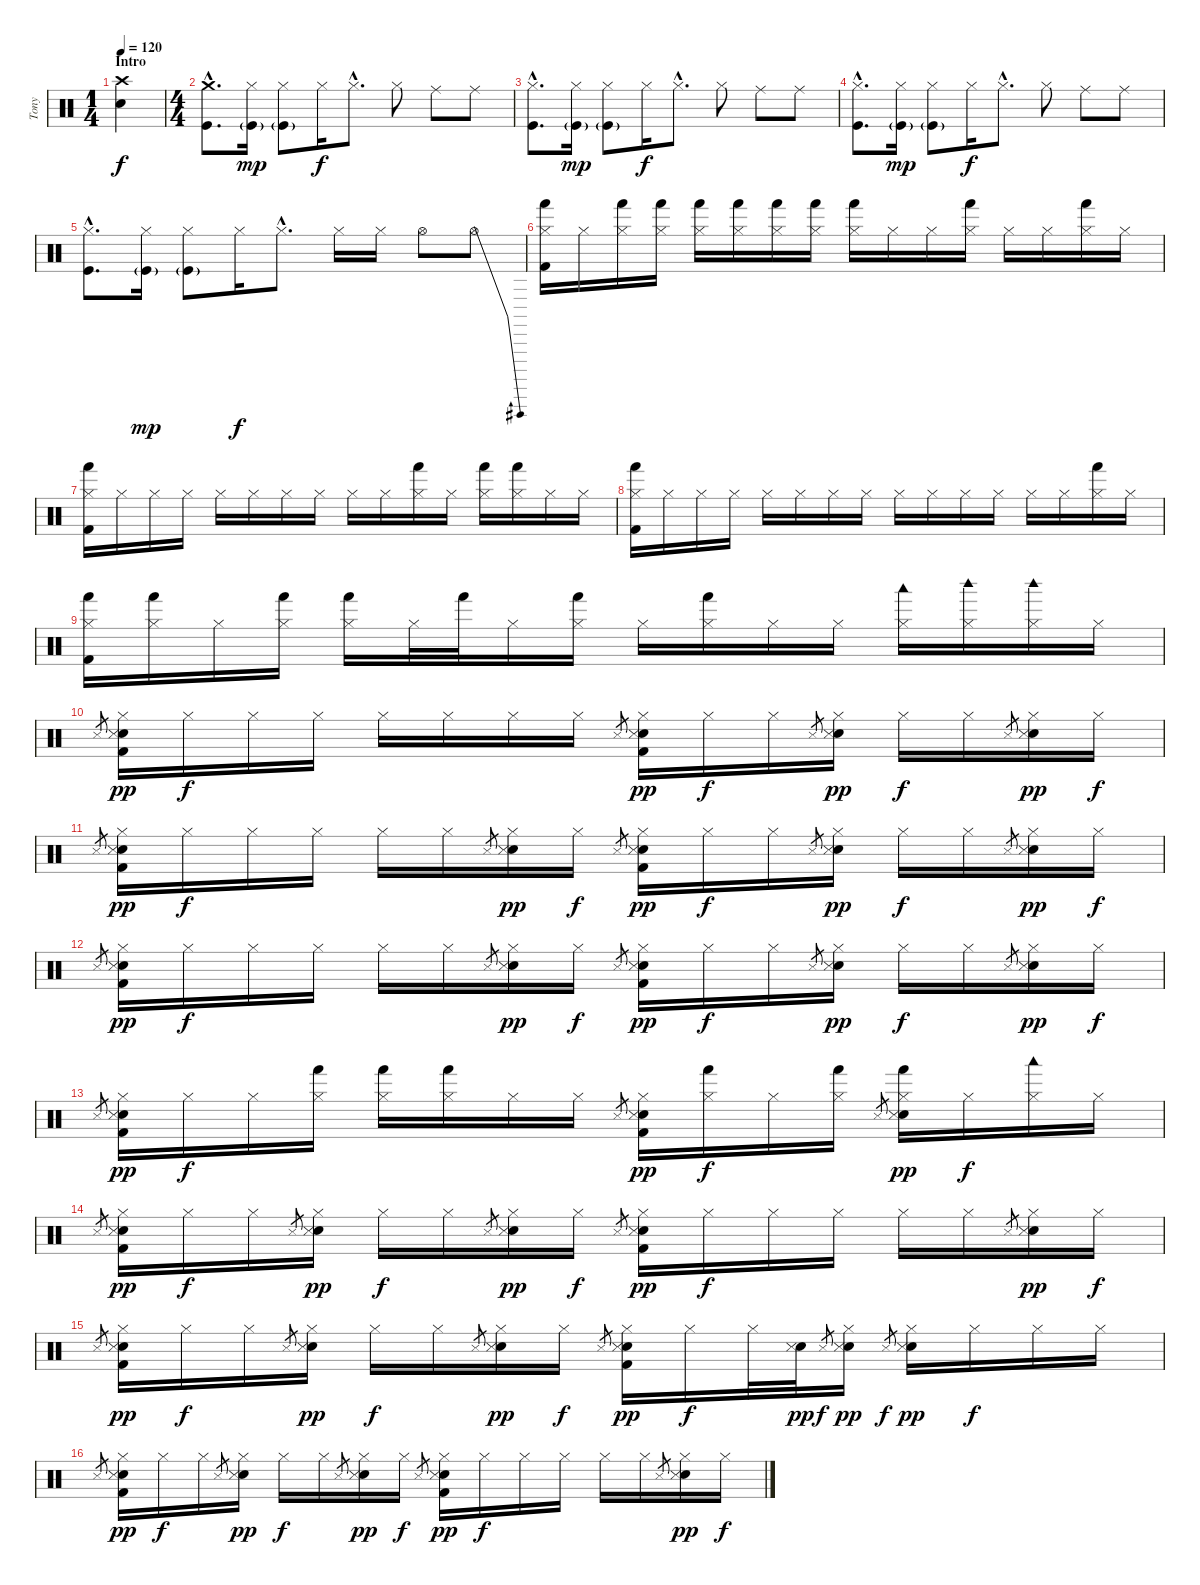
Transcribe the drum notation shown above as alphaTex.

\track ("Tony" "Tony") {instrument percussion}
\staff {score}
\articulation defaults
\ts (1 4)
\section ("" "Intro")
\tempo 120
\clef neutral
\ks c
("Crash high (hit)" "Snare (hit) 2").4{dy f} |
\ts (4 4)
("Crash medium (hit)"{hac} "Kick (hit)"{hac}).8{d} ("Hi-Hat (closed)" "Kick (hit)"{g}).16{dy mp} ("Hi-Hat (closed)" "Kick (hit)"{g}).8 "Hi-Hat (closed)".16{dy f} "Hi-Hat (closed)"{hac}.8{d} "Hi-Hat (closed)".8 "Ride (middle)".8 "Ride (middle)".8 |
("Hi-Hat (closed)"{hac} "Kick (hit)"{hac}).8{d} ("Hi-Hat (closed)" "Kick (hit)"{g}).16{dy mp} ("Hi-Hat (closed)" "Kick (hit)"{g}).8 "Hi-Hat (closed)".16{dy f} "Hi-Hat (closed)"{hac}.8{d} "Hi-Hat (closed)".8 "Ride (middle)".8 "Ride (middle)".8 |
("Hi-Hat (closed)"{hac} "Kick (hit)"{hac}).8{d} ("Hi-Hat (closed)" "Kick (hit)"{g}).16{dy mp} ("Hi-Hat (closed)" "Kick (hit)"{g}).8 "Hi-Hat (closed)".16{dy f} "Hi-Hat (closed)"{hac}.8{d} "Hi-Hat (closed)".8 "Ride (middle)".8 "Ride (middle)".8 |
("Hi-Hat (closed)"{hac} "Kick (hit)"{hac}).8{d} ("Hi-Hat (closed)" "Kick (hit)"{g}).16{dy mp} ("Hi-Hat (closed)" "Kick (hit)"{g}).8 "Hi-Hat (closed)".16{dy f} "Hi-Hat (closed)"{hac}.8{d} "Hi-Hat (closed)".16 "Hi-Hat (closed)".16 "Hi-Hat (open)"{be (custom 0 0 10 9 20 9 30 0 40 0 50 9 60 9)}.8 "Hi-Hat (open)"{be (bend 0 0 60 9)}.8 |
("Hand (hit)" "Hi-Hat (closed)" "Kick (hit) 2").16 "Hi-Hat (closed)".16 ("Hand (hit)" "Hi-Hat (closed)").16 ("Hand (hit)" "Hi-Hat (closed)").16 ("Hand (hit)" "Hi-Hat (closed)").16 ("Hand (hit)" "Hi-Hat (closed)").16 ("Hand (hit)" "Hi-Hat (closed)").16 ("Hand (hit)" "Hi-Hat (closed)").16 ("Hand (hit)" "Hi-Hat (closed)").16 "Hi-Hat (closed)".16 "Hi-Hat (closed)".16 ("Hand (hit)" "Hi-Hat (closed)").16 "Hi-Hat (closed)".16 "Hi-Hat (closed)".16 ("Hand (hit)" "Hi-Hat (closed)").16 "Hi-Hat (closed)".16 |
("Hand (hit)" "Hi-Hat (closed)" "Kick (hit) 2").16 "Hi-Hat (closed)".16 "Hi-Hat (closed)".16 "Hi-Hat (closed)".16 "Hi-Hat (closed)".16 "Hi-Hat (closed)".16 "Hi-Hat (closed)".16 "Hi-Hat (closed)".16 "Hi-Hat (closed)".16 "Hi-Hat (closed)".16 ("Hand (hit)" "Hi-Hat (closed)").16 "Hi-Hat (closed)".16 ("Hand (hit)" "Hi-Hat (closed)").16 ("Hand (hit)" "Hi-Hat (closed)").16 "Hi-Hat (closed)".16 "Hi-Hat (closed)".16 |
("Hand (hit)" "Hi-Hat (closed)" "Kick (hit) 2").16 "Hi-Hat (closed)".16 "Hi-Hat (closed)".16 "Hi-Hat (closed)".16 "Hi-Hat (closed)".16 "Hi-Hat (closed)".16 "Hi-Hat (closed)".16 "Hi-Hat (closed)".16 "Hi-Hat (closed)".16 "Hi-Hat (closed)".16 "Hi-Hat (closed)".16 "Hi-Hat (closed)".16 "Hi-Hat (closed)".16 "Hi-Hat (closed)".16 ("Hand (hit)" "Hi-Hat (closed)").16 "Hi-Hat (closed)".16 |
("Hand (hit)" "Hi-Hat (closed)" "Kick (hit) 2").16 ("Hand (hit)" "Hi-Hat (closed)").16 "Hi-Hat (closed)".16 ("Hand (hit)" "Hi-Hat (closed)").16 ("Hand (hit)" "Hi-Hat (closed)").16 "Hi-Hat (closed)".32 "Hand (hit)".32 "Hi-Hat (closed)".16 ("Hand (hit)" "Hi-Hat (closed)").16 "Hi-Hat (closed)".16 ("Hand (hit)" "Hi-Hat (closed)").16 "Hi-Hat (closed)".16 "Hi-Hat (closed)".16 ("Woodblock low (hit)" "Hi-Hat (closed)").16 ("Woodblock high (hit)" "Hi-Hat (closed)").16 ("Woodblock high (hit)" "Hi-Hat (closed)").16 "Hi-Hat (closed)".16 |
"Snare (side stick) 3".8{gr} ("Hand Clap (hit)" "Snare (side stick) 3" "Hi-Hat (closed)" "Kick (hit) 2").16{dy pp} "Hi-Hat (closed)".16{dy f} "Hi-Hat (closed)".16 "Hi-Hat (closed)".16 "Hi-Hat (closed)".16 "Hi-Hat (closed)".16 "Hi-Hat (closed)".16 "Hi-Hat (closed)".16 "Snare (side stick) 3".8{gr} ("Hand Clap (hit)" "Snare (side stick) 3" "Hi-Hat (closed)" "Kick (hit) 2").16{dy pp} "Hi-Hat (closed)".16{dy f} "Hi-Hat (closed)".16 "Snare (side stick) 3".8{gr} ("Hand Clap (hit)" "Snare (side stick) 3" "Hi-Hat (closed)").16{dy pp} "Hi-Hat (closed)".16{dy f} "Hi-Hat (closed)".16 "Snare (side stick) 3".8{gr} ("Hand Clap (hit)" "Snare (side stick) 3" "Hi-Hat (closed)").16{dy pp} "Hi-Hat (closed)".16{dy f} |
"Snare (side stick) 3".8{gr} ("Hand Clap (hit)" "Snare (side stick) 3" "Hi-Hat (closed)" "Kick (hit) 2").16{dy pp} "Hi-Hat (closed)".16{dy f} "Hi-Hat (closed)".16 "Hi-Hat (closed)".16 "Hi-Hat (closed)".16 "Hi-Hat (closed)".16 "Snare (side stick) 3".8{gr} ("Hand Clap (hit)" "Snare (side stick) 3" "Hi-Hat (closed)").16{dy pp} "Hi-Hat (closed)".16{dy f} "Snare (side stick) 3".8{gr} ("Hand Clap (hit)" "Snare (side stick) 3" "Hi-Hat (closed)" "Kick (hit) 2").16{dy pp} "Hi-Hat (closed)".16{dy f} "Hi-Hat (closed)".16 "Snare (side stick) 3".8{gr} ("Hand Clap (hit)" "Snare (side stick) 3" "Hi-Hat (closed)").16{dy pp} "Hi-Hat (closed)".16{dy f} "Hi-Hat (closed)".16 "Snare (side stick) 3".8{gr} ("Hand Clap (hit)" "Snare (side stick) 3" "Hi-Hat (closed)").16{dy pp} "Hi-Hat (closed)".16{dy f} |
"Snare (side stick) 3".8{gr} ("Hand Clap (hit)" "Snare (side stick) 3" "Hi-Hat (closed)" "Kick (hit) 2").16{dy pp} "Hi-Hat (closed)".16{dy f} "Hi-Hat (closed)".16 "Hi-Hat (closed)".16 "Hi-Hat (closed)".16 "Hi-Hat (closed)".16 "Snare (side stick) 3".8{gr} ("Hand Clap (hit)" "Snare (side stick) 3" "Hi-Hat (closed)").16{dy pp} "Hi-Hat (closed)".16{dy f} "Snare (side stick) 3".8{gr} ("Hand Clap (hit)" "Snare (side stick) 3" "Hi-Hat (closed)" "Kick (hit) 2").16{dy pp} "Hi-Hat (closed)".16{dy f} "Hi-Hat (closed)".16 "Snare (side stick) 3".8{gr} ("Hand Clap (hit)" "Snare (side stick) 3" "Hi-Hat (closed)").16{dy pp} "Hi-Hat (closed)".16{dy f} "Hi-Hat (closed)".16 "Snare (side stick) 3".8{gr} ("Hand Clap (hit)" "Snare (side stick) 3" "Hi-Hat (closed)").16{dy pp} "Hi-Hat (closed)".16{dy f} |
"Snare (side stick) 3".8{gr} ("Hand Clap (hit)" "Snare (side stick) 3" "Hi-Hat (closed)" "Kick (hit) 2").16{dy pp} "Hi-Hat (closed)".16{dy f} "Hi-Hat (closed)".16 ("Hand (hit)" "Hi-Hat (closed)").16 ("Hand (hit)" "Hi-Hat (closed)").16 ("Hand (hit)" "Hi-Hat (closed)").16 "Hi-Hat (closed)".16 "Hi-Hat (closed)".16 "Snare (side stick) 3".8{gr} ("Hand Clap (hit)" "Snare (side stick) 3" "Hi-Hat (closed)" "Kick (hit) 2").16{dy pp} ("Hand (hit)" "Hi-Hat (closed)").16{dy f} "Hi-Hat (closed)".16 ("Hand (hit)" "Hi-Hat (closed)").16 "Snare (side stick) 3".8{gr} ("Hand Clap (hit)" "Snare (side stick) 3" "Hand (hit)" "Hi-Hat (closed)").16{dy pp} "Hi-Hat (closed)".16{dy f} ("Woodblock low (hit)" "Hi-Hat (closed)").16 "Hi-Hat (closed)".16 |
"Snare (side stick) 3".8{gr} ("Hand Clap (hit)" "Snare (side stick) 3" "Hi-Hat (closed)" "Kick (hit) 2").16{dy pp} "Hi-Hat (closed)".16{dy f} "Hi-Hat (closed)".16 "Snare (side stick) 3".8{gr} ("Hand Clap (hit)" "Snare (side stick) 3" "Hi-Hat (closed)").16{dy pp} "Hi-Hat (closed)".16{dy f} "Hi-Hat (closed)".16 "Snare (side stick) 3".8{gr} ("Hand Clap (hit)" "Snare (side stick) 3" "Hi-Hat (closed)").16{dy pp} "Hi-Hat (closed)".16{dy f} "Snare (side stick) 3".8{gr} ("Hand Clap (hit)" "Snare (side stick) 3" "Hi-Hat (closed)" "Kick (hit) 2").16{dy pp} "Hi-Hat (closed)".16{dy f} "Hi-Hat (closed)".16 "Hi-Hat (closed)".16 "Hi-Hat (closed)".16 "Hi-Hat (closed)".16 "Snare (side stick) 3".8{gr} ("Hand Clap (hit)" "Snare (side stick) 3" "Hi-Hat (closed)").16{dy pp} "Hi-Hat (closed)".16{dy f} |
"Snare (side stick) 3".8{gr} ("Hand Clap (hit)" "Snare (side stick) 3" "Hi-Hat (closed)" "Kick (hit) 2").16{dy pp} "Hi-Hat (closed)".16{dy f} "Hi-Hat (closed)".16 "Snare (side stick) 3".8{gr} ("Hand Clap (hit)" "Snare (side stick) 3" "Hi-Hat (closed)").16{dy pp} "Hi-Hat (closed)".16{dy f} "Hi-Hat (closed)".16 "Snare (side stick) 3".8{gr} ("Hand Clap (hit)" "Snare (side stick) 3" "Hi-Hat (closed)").16{dy pp} "Hi-Hat (closed)".16{dy f} "Snare (side stick) 3".8{gr} ("Hand Clap (hit)" "Snare (side stick) 3" "Hi-Hat (closed)" "Kick (hit) 2").16{dy pp} "Hi-Hat (closed)".16{dy f} "Hi-Hat (closed)".32 ("Hand Clap (hit)" "Snare (side stick) 3").32{dy pp} "Snare (side stick) 3".8{gr dy f} ("Hand Clap (hit)" "Snare (side stick) 3" "Hi-Hat (closed)").16{dy pp} "Snare (side stick) 3".8{gr dy f} ("Hand Clap (hit)" "Snare (side stick) 3" "Hi-Hat (closed)").16{dy pp} "Hi-Hat (closed)".16{dy f} "Hi-Hat (closed)".16 "Hi-Hat (closed)".16 |
"Snare (side stick) 3".8{gr} ("Hand Clap (hit)" "Snare (side stick) 3" "Hi-Hat (closed)" "Kick (hit) 2").16{dy pp} "Hi-Hat (closed)".16{dy f} "Hi-Hat (closed)".16 "Snare (side stick) 3".8{gr} ("Hand Clap (hit)" "Snare (side stick) 3" "Hi-Hat (closed)").16{dy pp} "Hi-Hat (closed)".16{dy f} "Hi-Hat (closed)".16 "Snare (side stick) 3".8{gr} ("Hand Clap (hit)" "Snare (side stick) 3" "Hi-Hat (closed)").16{dy pp} "Hi-Hat (closed)".16{dy f} "Snare (side stick) 3".8{gr} ("Hand Clap (hit)" "Snare (side stick) 3" "Hi-Hat (closed)" "Kick (hit) 2").16{dy pp} "Hi-Hat (closed)".16{dy f} "Hi-Hat (closed)".16 "Hi-Hat (closed)".16 "Hi-Hat (closed)".16 "Hi-Hat (closed)".16 "Snare (side stick) 3".8{gr} ("Hand Clap (hit)" "Snare (side stick) 3" "Hi-Hat (closed)").16{dy pp} "Hi-Hat (closed)".16{dy f}
